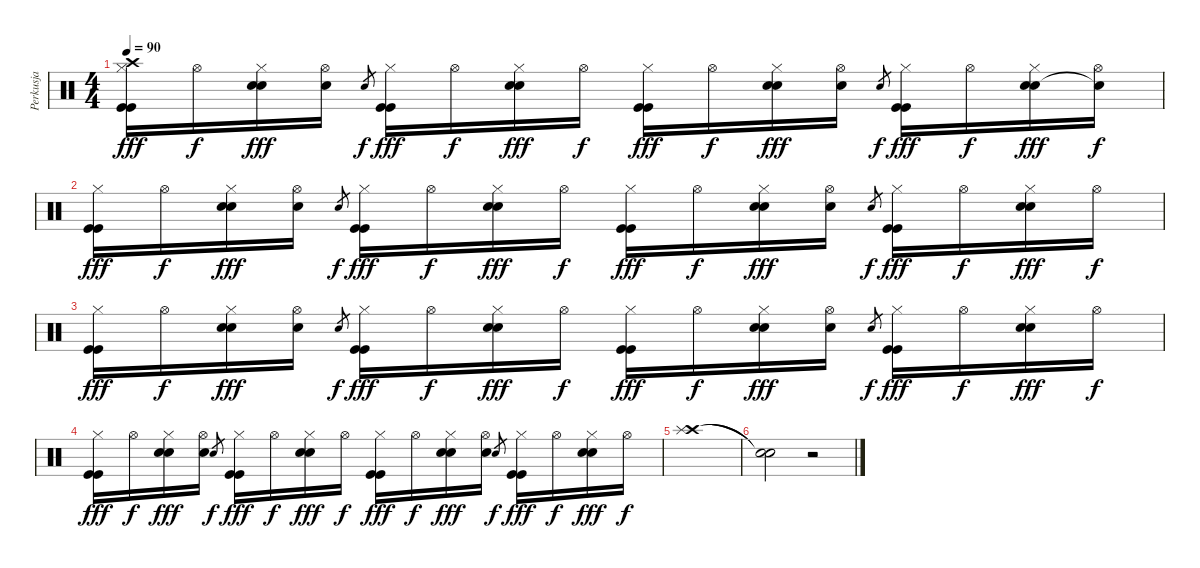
\track ("Perkusja" "Perkusja") {instrument percussion}
\staff {score}
\articulation defaults
\ts (4 4)
\tempo 90
\clef neutral
\ks c
("Hi-Hat (closed)" "Crash high (hit)" "Kick (hit)" "Kick (hit)").16{dy fff} "Hi-Hat (open)".16{dy f} ("Hi-Hat (closed)" "Hand Clap (hit)" "Snare (hit) 2").16{dy fff} ("Hi-Hat (open)" "Hand Clap (hit)").16 "Snare (hit) 2".8{gr dy f} ("Hi-Hat (closed)" "Kick (hit)" "Kick (hit)").16{dy fff} "Hi-Hat (open)".16{dy f} ("Hi-Hat (closed)" "Hand Clap (hit)" "Snare (hit) 2").16{dy fff} "Hi-Hat (open)".16{dy f} ("Hi-Hat (closed)" "Kick (hit)" "Kick (hit)").16{dy fff} "Hi-Hat (open)".16{dy f} ("Hi-Hat (closed)" "Hand Clap (hit)" "Snare (hit) 2").16{dy fff} ("Hi-Hat (open)" "Hand Clap (hit)").16 "Snare (hit) 2".8{gr dy f} ("Hi-Hat (closed)" "Kick (hit)" "Kick (hit)").16{dy fff} "Hi-Hat (open)".16{dy f} ("Hi-Hat (closed)" "Hand Clap (hit)" "Snare (hit) 2").16{dy fff} ("Hi-Hat (open)" "Snare (hit)"{t}).16{dy f} |
("Hi-Hat (closed)" "Kick (hit)" "Kick (hit)").16{dy fff} "Hi-Hat (open)".16{dy f} ("Hi-Hat (closed)" "Hand Clap (hit)" "Snare (hit) 2").16{dy fff} ("Hi-Hat (open)" "Hand Clap (hit)").16 "Snare (hit) 2".8{gr dy f} ("Hi-Hat (closed)" "Kick (hit)" "Kick (hit)").16{dy fff} "Hi-Hat (open)".16{dy f} ("Hi-Hat (closed)" "Hand Clap (hit)" "Snare (hit) 2").16{dy fff} "Hi-Hat (open)".16{dy f} ("Hi-Hat (closed)" "Kick (hit)" "Kick (hit)").16{dy fff} "Hi-Hat (open)".16{dy f} ("Hi-Hat (closed)" "Hand Clap (hit)" "Snare (hit) 2").16{dy fff} ("Hi-Hat (open)" "Hand Clap (hit)").16 "Snare (hit) 2".8{gr dy f} ("Hi-Hat (closed)" "Kick (hit)" "Kick (hit)").16{dy fff} "Hi-Hat (open)".16{dy f} ("Hi-Hat (closed)" "Hand Clap (hit)" "Snare (hit) 2").16{dy fff} "Hi-Hat (open)".16{dy f} |
("Hi-Hat (closed)" "Kick (hit)" "Kick (hit)").16{dy fff} "Hi-Hat (open)".16{dy f} ("Hi-Hat (closed)" "Hand Clap (hit)" "Snare (hit) 2").16{dy fff} ("Hi-Hat (open)" "Hand Clap (hit)").16 "Snare (hit) 2".8{gr dy f} ("Hi-Hat (closed)" "Kick (hit)" "Kick (hit)").16{dy fff} "Hi-Hat (open)".16{dy f} ("Hi-Hat (closed)" "Hand Clap (hit)" "Snare (hit) 2").16{dy fff} "Hi-Hat (open)".16{dy f} ("Hi-Hat (closed)" "Kick (hit)" "Kick (hit)").16{dy fff} "Hi-Hat (open)".16{dy f} ("Hi-Hat (closed)" "Hand Clap (hit)" "Snare (hit) 2").16{dy fff} ("Hi-Hat (open)" "Hand Clap (hit)").16 "Snare (hit) 2".8{gr dy f} ("Hi-Hat (closed)" "Kick (hit)" "Kick (hit)").16{dy fff} "Hi-Hat (open)".16{dy f} ("Hi-Hat (closed)" "Hand Clap (hit)" "Snare (hit) 2").16{dy fff} "Hi-Hat (open)".16{dy f} |
("Hi-Hat (closed)" "Kick (hit)" "Kick (hit)").16{dy fff} "Hi-Hat (open)".16{dy f} ("Hi-Hat (closed)" "Hand Clap (hit)" "Snare (hit) 2").16{dy fff} ("Hi-Hat (open)" "Hand Clap (hit)").16 "Snare (hit) 2".8{gr dy f} ("Hi-Hat (closed)" "Kick (hit)" "Kick (hit)").16{dy fff} "Hi-Hat (open)".16{dy f} ("Hi-Hat (closed)" "Hand Clap (hit)" "Snare (hit) 2").16{dy fff} "Hi-Hat (open)".16{dy f} ("Hi-Hat (closed)" "Kick (hit)" "Kick (hit)").16{dy fff} "Hi-Hat (open)".16{dy f} ("Hi-Hat (closed)" "Hand Clap (hit)" "Snare (hit) 2").16{dy fff} ("Hi-Hat (open)" "Hand Clap (hit)").16 "Snare (hit) 2".8{gr dy f} ("Hi-Hat (closed)" "Kick (hit)" "Kick (hit)").16{dy fff} "Hi-Hat (open)".16{dy f} ("Hi-Hat (closed)" "Hand Clap (hit)" "Snare (hit) 2").16{dy fff} "Hi-Hat (open)".16{dy f} |
("Crash high (hit)" "Splash (hit)").1 |
("Snare (hit)"{t} "Snare (hit)"{t}).2 r.2
